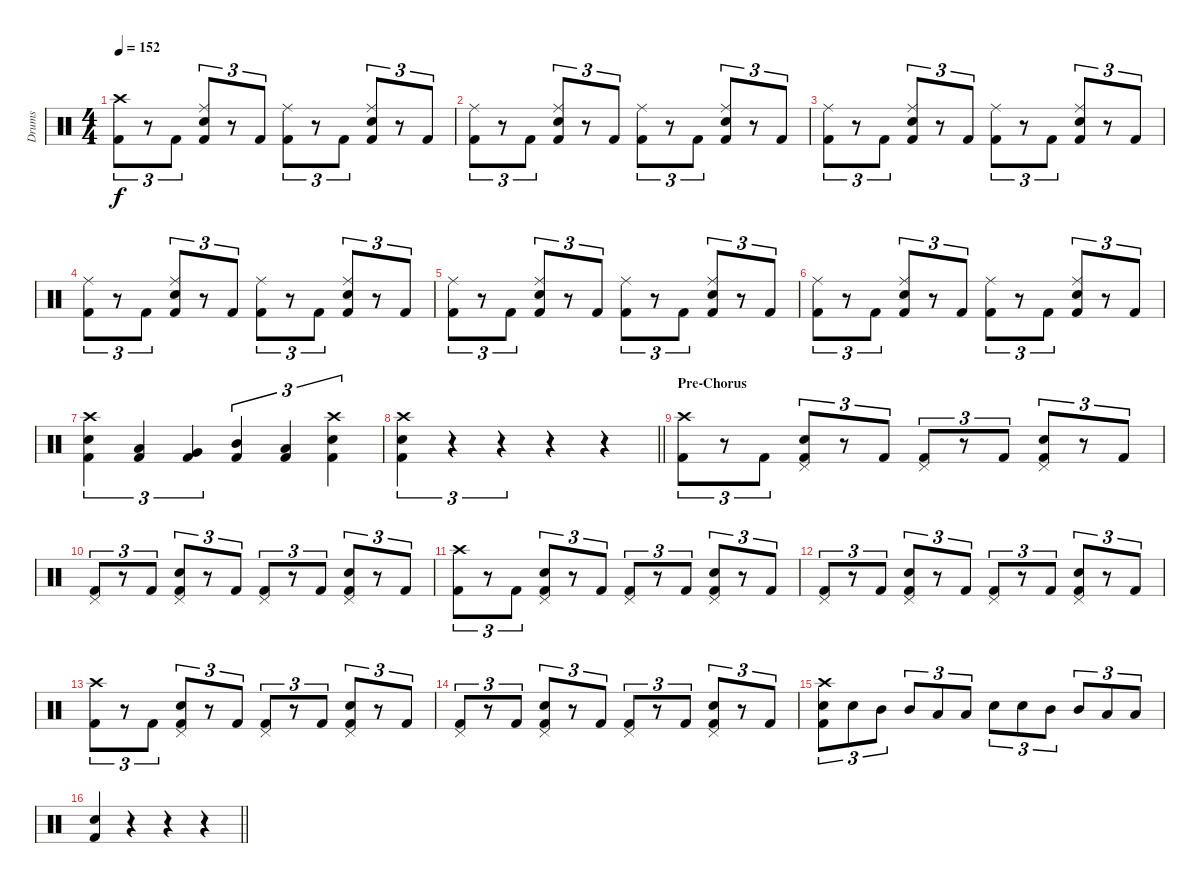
\track ("Drums" "Drums") {instrument percussion}
\staff {score}
\articulation defaults
\ts (4 4)
\tempo 152
\clef neutral
\ks c
("Crash high (hit)" "Kick (hit) 2").8{tu (3 2) dy f} r.8{tu (3 2)} "Kick (hit) 2".8{tu (3 2)} ("Ride (middle)" "Snare (hit) 2" "Kick (hit) 2").8{tu (3 2)} r.8{tu (3 2)} "Kick (hit) 2".8{tu (3 2)} ("Ride (middle)" "Kick (hit) 2").8{tu (3 2)} r.8{tu (3 2)} "Kick (hit) 2".8{tu (3 2)} ("Ride (middle)" "Snare (hit) 2" "Kick (hit) 2").8{tu (3 2)} r.8{tu (3 2)} "Kick (hit) 2".8{tu (3 2)} |
("Ride (middle)" "Kick (hit) 2").8{tu (3 2)} r.8{tu (3 2)} "Kick (hit) 2".8{tu (3 2)} ("Ride (middle)" "Snare (hit) 2" "Kick (hit) 2").8{tu (3 2)} r.8{tu (3 2)} "Kick (hit) 2".8{tu (3 2)} ("Ride (middle)" "Kick (hit) 2").8{tu (3 2)} r.8{tu (3 2)} "Kick (hit) 2".8{tu (3 2)} ("Ride (middle)" "Snare (hit) 2" "Kick (hit) 2").8{tu (3 2)} r.8{tu (3 2)} "Kick (hit) 2".8{tu (3 2)} |
("Ride (middle)" "Kick (hit) 2").8{tu (3 2)} r.8{tu (3 2)} "Kick (hit) 2".8{tu (3 2)} ("Ride (middle)" "Snare (hit) 2" "Kick (hit) 2").8{tu (3 2)} r.8{tu (3 2)} "Kick (hit) 2".8{tu (3 2)} ("Ride (middle)" "Kick (hit) 2").8{tu (3 2)} r.8{tu (3 2)} "Kick (hit) 2".8{tu (3 2)} ("Ride (middle)" "Snare (hit) 2" "Kick (hit) 2").8{tu (3 2)} r.8{tu (3 2)} "Kick (hit) 2".8{tu (3 2)} |
("Ride (middle)" "Kick (hit) 2").8{tu (3 2)} r.8{tu (3 2)} "Kick (hit) 2".8{tu (3 2)} ("Ride (middle)" "Snare (hit) 2" "Kick (hit) 2").8{tu (3 2)} r.8{tu (3 2)} "Kick (hit) 2".8{tu (3 2)} ("Ride (middle)" "Kick (hit) 2").8{tu (3 2)} r.8{tu (3 2)} "Kick (hit) 2".8{tu (3 2)} ("Ride (middle)" "Snare (hit) 2" "Kick (hit) 2").8{tu (3 2)} r.8{tu (3 2)} "Kick (hit) 2".8{tu (3 2)} |
("Ride (middle)" "Kick (hit) 2").8{tu (3 2)} r.8{tu (3 2)} "Kick (hit) 2".8{tu (3 2)} ("Ride (middle)" "Snare (hit) 2" "Kick (hit) 2").8{tu (3 2)} r.8{tu (3 2)} "Kick (hit) 2".8{tu (3 2)} ("Ride (middle)" "Kick (hit) 2").8{tu (3 2)} r.8{tu (3 2)} "Kick (hit) 2".8{tu (3 2)} ("Ride (middle)" "Snare (hit) 2" "Kick (hit) 2").8{tu (3 2)} r.8{tu (3 2)} "Kick (hit) 2".8{tu (3 2)} |
("Ride (middle)" "Kick (hit) 2").8{tu (3 2)} r.8{tu (3 2)} "Kick (hit) 2".8{tu (3 2)} ("Ride (middle)" "Snare (hit) 2" "Kick (hit) 2").8{tu (3 2)} r.8{tu (3 2)} "Kick (hit) 2".8{tu (3 2)} ("Ride (middle)" "Kick (hit) 2").8{tu (3 2)} r.8{tu (3 2)} "Kick (hit) 2".8{tu (3 2)} ("Ride (middle)" "Snare (hit) 2" "Kick (hit) 2").8{tu (3 2)} r.8{tu (3 2)} "Kick (hit) 2".8{tu (3 2)} |
("Crash high (hit)" "Snare (hit) 2" "Kick (hit) 2").4{tu (3 2)} ("Low Tom (hit)" "Kick (hit) 2").4{tu (3 2)} ("Very Low Tom (hit)" "Kick (hit) 2").4{tu (3 2)} ("Mid Tom (hit)" "Kick (hit) 2").4{tu (3 2)} ("Low Tom (hit)" "Kick (hit) 2").4{tu (3 2)} ("Crash high (hit)" "Snare (hit) 2" "Kick (hit) 2").4{tu (3 2)} |
\barLineRight lightlight
("Crash high (hit)" "Snare (hit) 2" "Kick (hit) 2").4{tu (3 2)} r.4{tu (3 2)} r.4{tu (3 2)} r.4 r.4 |
\section ("" "Pre-Chorus")
("Crash high (hit)" "Kick (hit) 2").8{tu (3 2)} r.8{tu (3 2)} "Kick (hit) 2".8{tu (3 2)} ("Pedal Hi-Hat (hit)" "Snare (hit) 2" "Kick (hit) 2").8{tu (3 2)} r.8{tu (3 2)} "Kick (hit) 2".8{tu (3 2)} ("Pedal Hi-Hat (hit)" "Kick (hit) 2").8{tu (3 2)} r.8{tu (3 2)} "Kick (hit) 2".8{tu (3 2)} ("Pedal Hi-Hat (hit)" "Snare (hit) 2" "Kick (hit) 2").8{tu (3 2)} r.8{tu (3 2)} "Kick (hit) 2".8{tu (3 2)} |
("Pedal Hi-Hat (hit)" "Kick (hit) 2").8{tu (3 2)} r.8{tu (3 2)} "Kick (hit) 2".8{tu (3 2)} ("Pedal Hi-Hat (hit)" "Snare (hit) 2" "Kick (hit) 2").8{tu (3 2)} r.8{tu (3 2)} "Kick (hit) 2".8{tu (3 2)} ("Pedal Hi-Hat (hit)" "Kick (hit) 2").8{tu (3 2)} r.8{tu (3 2)} "Kick (hit) 2".8{tu (3 2)} ("Pedal Hi-Hat (hit)" "Snare (hit) 2" "Kick (hit) 2").8{tu (3 2)} r.8{tu (3 2)} "Kick (hit) 2".8{tu (3 2)} |
("Crash high (hit)" "Kick (hit) 2").8{tu (3 2)} r.8{tu (3 2)} "Kick (hit) 2".8{tu (3 2)} ("Pedal Hi-Hat (hit)" "Snare (hit) 2" "Kick (hit) 2").8{tu (3 2)} r.8{tu (3 2)} "Kick (hit) 2".8{tu (3 2)} ("Pedal Hi-Hat (hit)" "Kick (hit) 2").8{tu (3 2)} r.8{tu (3 2)} "Kick (hit) 2".8{tu (3 2)} ("Pedal Hi-Hat (hit)" "Snare (hit) 2" "Kick (hit) 2").8{tu (3 2)} r.8{tu (3 2)} "Kick (hit) 2".8{tu (3 2)} |
("Pedal Hi-Hat (hit)" "Kick (hit) 2").8{tu (3 2)} r.8{tu (3 2)} "Kick (hit) 2".8{tu (3 2)} ("Pedal Hi-Hat (hit)" "Snare (hit) 2" "Kick (hit) 2").8{tu (3 2)} r.8{tu (3 2)} "Kick (hit) 2".8{tu (3 2)} ("Pedal Hi-Hat (hit)" "Kick (hit) 2").8{tu (3 2)} r.8{tu (3 2)} "Kick (hit) 2".8{tu (3 2)} ("Pedal Hi-Hat (hit)" "Snare (hit) 2" "Kick (hit) 2").8{tu (3 2)} r.8{tu (3 2)} "Kick (hit) 2".8{tu (3 2)} |
("Crash high (hit)" "Kick (hit) 2").8{tu (3 2)} r.8{tu (3 2)} "Kick (hit) 2".8{tu (3 2)} ("Pedal Hi-Hat (hit)" "Snare (hit) 2" "Kick (hit) 2").8{tu (3 2)} r.8{tu (3 2)} "Kick (hit) 2".8{tu (3 2)} ("Pedal Hi-Hat (hit)" "Kick (hit) 2").8{tu (3 2)} r.8{tu (3 2)} "Kick (hit) 2".8{tu (3 2)} ("Pedal Hi-Hat (hit)" "Snare (hit) 2" "Kick (hit) 2").8{tu (3 2)} r.8{tu (3 2)} "Kick (hit) 2".8{tu (3 2)} |
("Pedal Hi-Hat (hit)" "Kick (hit) 2").8{tu (3 2)} r.8{tu (3 2)} "Kick (hit) 2".8{tu (3 2)} ("Pedal Hi-Hat (hit)" "Snare (hit) 2" "Kick (hit) 2").8{tu (3 2)} r.8{tu (3 2)} "Kick (hit) 2".8{tu (3 2)} ("Pedal Hi-Hat (hit)" "Kick (hit) 2").8{tu (3 2)} r.8{tu (3 2)} "Kick (hit) 2".8{tu (3 2)} ("Pedal Hi-Hat (hit)" "Snare (hit) 2" "Kick (hit) 2").8{tu (3 2)} r.8{tu (3 2)} "Kick (hit) 2".8{tu (3 2)} |
("Crash high (hit)" "Snare (hit) 2" "Kick (hit) 2").8{tu (3 2)} "Snare (hit) 2".8{tu (3 2)} "Mid Tom (hit)".8{tu (3 2)} "Mid Tom (hit)".8{tu (3 2)} "Low Tom (hit)".8{tu (3 2)} "Low Tom (hit)".8{tu (3 2)} "Snare (hit) 2".8{tu (3 2)} "Snare (hit) 2".8{tu (3 2)} "Mid Tom (hit)".8{tu (3 2)} "Mid Tom (hit)".8{tu (3 2)} "Low Tom (hit)".8{tu (3 2)} "Low Tom (hit)".8{tu (3 2)} |
\barLineRight lightlight
("Snare (hit) 2" "Kick (hit) 2").4 r.4 r.4 r.4
